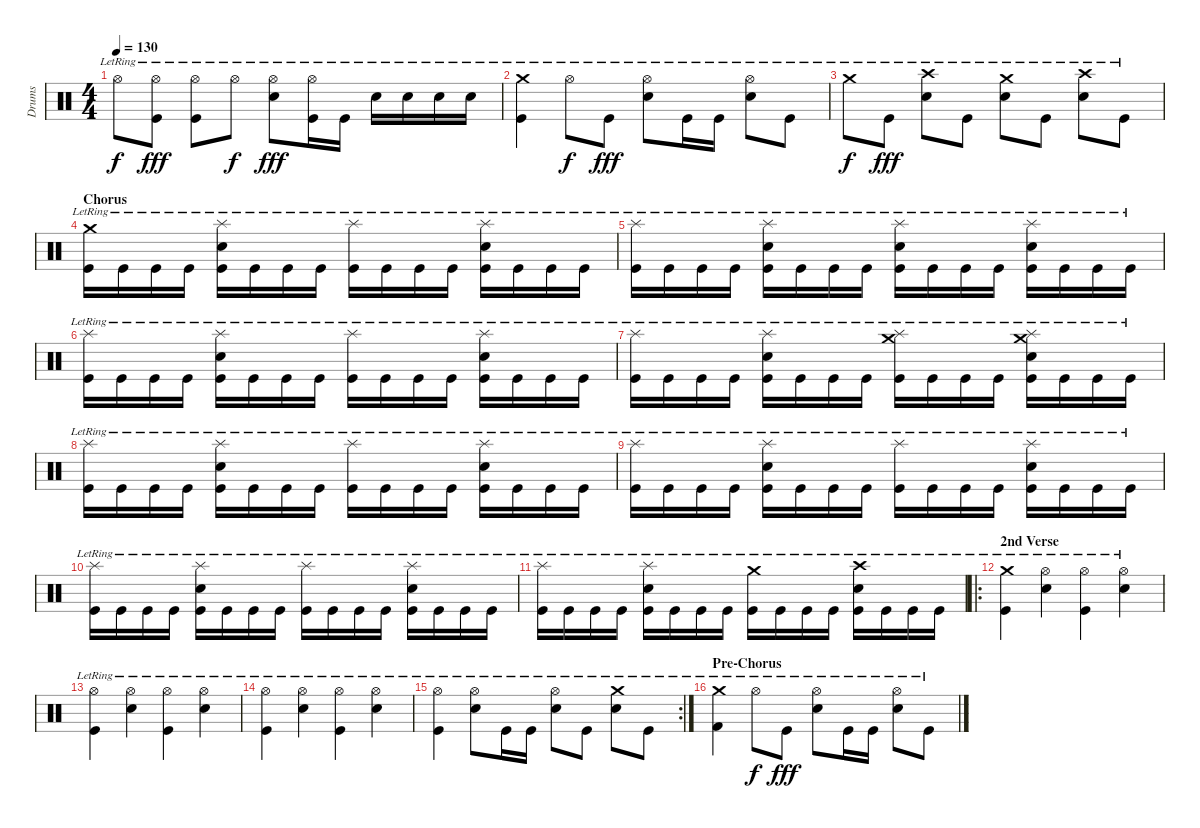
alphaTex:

\track ("Drums" "Drums") {instrument percussion}
\staff {score}
\articulation defaults
\ts (4 4)
\tempo 130
\clef neutral
\ks c "Hi-Hat (open)"{lr}.8{dy f}
("Kick (hit)"{lr} "Hi-Hat (open)"{lr}).8{dy fff} ("Kick (hit)"{lr} "Hi-Hat (open)"{lr}).8 "Hi-Hat (open)"{lr}.8{dy f} ("Snare (hit) 2"{lr} "Hi-Hat (open)"{lr}).8{dy fff} ("Kick (hit)"{lr} "Hi-Hat (open)"{lr}).16 "Kick (hit)"{lr}.16 "Snare (hit) 2"{lr}.16 "Snare (hit) 2"{lr}.16 "Snare (hit) 2"{lr}.16 "Snare (hit) 2"{lr}.16 |
("Kick (hit)"{lr} "Crash medium (hit)"{lr}).4 "Hi-Hat (open)"{lr}.8{dy f} "Kick (hit)"{lr}.8{dy fff} ("Snare (hit) 2"{lr} "Hi-Hat (open)"{lr}).8 "Kick (hit)"{lr}.16 "Kick (hit)"{lr}.16 ("Snare (hit) 2"{lr} "Hi-Hat (open)"{lr}).8 "Kick (hit)"{lr}.8 |
"Crash medium (hit)"{lr}.8{dy f} "Kick (hit)"{lr}.8{dy fff} ("Snare (hit) 2"{lr} "Crash high (hit)"{lr}).8 "Kick (hit)"{lr}.8 ("Snare (hit) 2"{lr} "Crash medium (hit)"{lr}).8 "Kick (hit)"{lr}.8 ("Snare (hit) 2"{lr} "Crash high (hit)"{lr}).8 "Kick (hit)"{lr}.8 |
\section ("" "Chorus")
("Kick (hit)"{lr} "Crash medium (hit)"{lr}).16 "Kick (hit)"{lr}.16 "Kick (hit)"{lr}.16 "Kick (hit)"{lr}.16 ("Kick (hit)"{lr} "Snare (hit) 2"{lr} "Splash (hit)"{lr}).16 "Kick (hit)"{lr}.16 "Kick (hit)"{lr}.16 "Kick (hit)"{lr}.16 ("Kick (hit)"{lr} "Splash (hit)"{lr}).16 "Kick (hit)"{lr}.16 "Kick (hit)"{lr}.16 "Kick (hit)"{lr}.16 ("Kick (hit)"{lr} "Snare (hit) 2"{lr} "Splash (hit)"{lr}).16 "Kick (hit)"{lr}.16 "Kick (hit)"{lr}.16 "Kick (hit)"{lr}.16 |
("Kick (hit)"{lr} "Splash (hit)"{lr}).16 "Kick (hit)"{lr}.16 "Kick (hit)"{lr}.16 "Kick (hit)"{lr}.16 ("Kick (hit)"{lr} "Snare (hit) 2"{lr} "Splash (hit)"{lr}).16 "Kick (hit)"{lr}.16 "Kick (hit)"{lr}.16 "Kick (hit)"{lr}.16 ("Kick (hit)"{lr} "Snare (hit) 2"{lr} "Splash (hit)"{lr}).16 "Kick (hit)"{lr}.16 "Kick (hit)"{lr}.16 "Kick (hit)"{lr}.16 ("Kick (hit)"{lr} "Snare (hit) 2"{lr} "Splash (hit)"{lr}).16 "Kick (hit)"{lr}.16 "Kick (hit)"{lr}.16 "Kick (hit)"{lr}.16 |
("Kick (hit)"{lr} "Splash (hit)"{lr}).16 "Kick (hit)"{lr}.16 "Kick (hit)"{lr}.16 "Kick (hit)"{lr}.16 ("Kick (hit)"{lr} "Snare (hit) 2"{lr} "Splash (hit)"{lr}).16 "Kick (hit)"{lr}.16 "Kick (hit)"{lr}.16 "Kick (hit)"{lr}.16 ("Kick (hit)"{lr} "Splash (hit)"{lr}).16 "Kick (hit)"{lr}.16 "Kick (hit)"{lr}.16 "Kick (hit)"{lr}.16 ("Kick (hit)"{lr} "Snare (hit) 2"{lr} "Splash (hit)"{lr}).16 "Kick (hit)"{lr}.16 "Kick (hit)"{lr}.16 "Kick (hit)"{lr}.16 |
("Kick (hit)"{lr} "Splash (hit)"{lr}).16 "Kick (hit)"{lr}.16 "Kick (hit)"{lr}.16 "Kick (hit)"{lr}.16 ("Kick (hit)"{lr} "Snare (hit) 2"{lr} "Splash (hit)"{lr}).16 "Kick (hit)"{lr}.16 "Kick (hit)"{lr}.16 "Kick (hit)"{lr}.16 ("Kick (hit)"{lr} "Splash (hit)"{lr} "Crash medium (hit)"{lr}).16 "Kick (hit)"{lr}.16 "Kick (hit)"{lr}.16 "Kick (hit)"{lr}.16 ("Kick (hit)"{lr} "Snare (hit) 2"{lr} "Splash (hit)"{lr} "Crash medium (hit)"{lr}).16 "Kick (hit)"{lr}.16 "Kick (hit)"{lr}.16 "Kick (hit)"{lr}.16 |
("Kick (hit)"{lr} "Splash (hit)"{lr}).16 "Kick (hit)"{lr}.16 "Kick (hit)"{lr}.16 "Kick (hit)"{lr}.16 ("Kick (hit)"{lr} "Snare (hit) 2"{lr} "Splash (hit)"{lr}).16 "Kick (hit)"{lr}.16 "Kick (hit)"{lr}.16 "Kick (hit)"{lr}.16 ("Kick (hit)"{lr} "Splash (hit)"{lr}).16 "Kick (hit)"{lr}.16 "Kick (hit)"{lr}.16 "Kick (hit)"{lr}.16 ("Kick (hit)"{lr} "Snare (hit) 2"{lr} "Splash (hit)"{lr}).16 "Kick (hit)"{lr}.16 "Kick (hit)"{lr}.16 "Kick (hit)"{lr}.16 |
("Kick (hit)"{lr} "Splash (hit)"{lr}).16 "Kick (hit)"{lr}.16 "Kick (hit)"{lr}.16 "Kick (hit)"{lr}.16 ("Kick (hit)"{lr} "Snare (hit) 2"{lr} "Splash (hit)"{lr}).16 "Kick (hit)"{lr}.16 "Kick (hit)"{lr}.16 "Kick (hit)"{lr}.16 ("Kick (hit)"{lr} "Splash (hit)"{lr}).16 "Kick (hit)"{lr}.16 "Kick (hit)"{lr}.16 "Kick (hit)"{lr}.16 ("Kick (hit)"{lr} "Snare (hit) 2"{lr} "Splash (hit)"{lr}).16 "Kick (hit)"{lr}.16 "Kick (hit)"{lr}.16 "Kick (hit)"{lr}.16 |
("Kick (hit)"{lr} "Splash (hit)"{lr}).16 "Kick (hit)"{lr}.16 "Kick (hit)"{lr}.16 "Kick (hit)"{lr}.16 ("Kick (hit)"{lr} "Snare (hit) 2"{lr} "Splash (hit)"{lr}).16 "Kick (hit)"{lr}.16 "Kick (hit)"{lr}.16 "Kick (hit)"{lr}.16 ("Kick (hit)"{lr} "Splash (hit)"{lr}).16 "Kick (hit)"{lr}.16 "Kick (hit)"{lr}.16 "Kick (hit)"{lr}.16 ("Kick (hit)"{lr} "Snare (hit) 2"{lr} "Splash (hit)"{lr}).16 "Kick (hit)"{lr}.16 "Kick (hit)"{lr}.16 "Kick (hit)"{lr}.16 |
("Kick (hit)"{lr} "Splash (hit)"{lr}).16 "Kick (hit)"{lr}.16 "Kick (hit)"{lr}.16 "Kick (hit)"{lr}.16 ("Kick (hit)"{lr} "Snare (hit) 2"{lr} "Splash (hit)"{lr}).16 "Kick (hit)"{lr}.16 "Kick (hit)"{lr}.16 "Kick (hit)"{lr}.16 ("Kick (hit)"{lr} "Crash medium (hit)"{lr}).16 "Kick (hit)"{lr}.16 "Kick (hit)"{lr}.16 "Kick (hit)"{lr}.16 ("Kick (hit)"{lr} "Snare (hit) 2"{lr} "Crash high (hit)"{lr}).16 "Kick (hit)"{lr}.16 "Kick (hit)"{lr}.16 "Kick (hit)"{lr}.16 |
\ro
\section ("" "2nd Verse")
("Kick (hit)"{lr} "Crash medium (hit)"{lr}).4 ("Snare (hit) 2"{lr} "Hi-Hat (open)"{lr}).4 ("Kick (hit)"{lr} "Hi-Hat (open)"{lr}).4 ("Snare (hit) 2"{lr} "Hi-Hat (open)"{lr}).4 |
("Kick (hit)"{lr} "Hi-Hat (open)"{lr}).4 ("Snare (hit) 2"{lr} "Hi-Hat (open)"{lr}).4 ("Kick (hit)"{lr} "Hi-Hat (open)"{lr}).4 ("Snare (hit) 2"{lr} "Hi-Hat (open)"{lr}).4 |
("Kick (hit)"{lr} "Hi-Hat (open)"{lr}).4 ("Snare (hit) 2"{lr} "Hi-Hat (open)"{lr}).4 ("Kick (hit)"{lr} "Hi-Hat (open)"{lr}).4 ("Snare (hit) 2"{lr} "Hi-Hat (open)"{lr}).4 |
\rc 2
("Kick (hit)"{lr} "Hi-Hat (open)"{lr}).4 ("Snare (hit) 2"{lr} "Hi-Hat (open)"{lr}).8 "Kick (hit)"{lr}.16 "Kick (hit)"{lr}.16 ("Snare (hit) 2"{lr} "Hi-Hat (open)"{lr}).8 "Kick (hit)"{lr}.8 ("Snare (hit) 2"{lr} "Crash medium (hit)"{lr}).8 "Kick (hit)"{lr}.8 |
\section ("" "Pre-Chorus")
("Kick (hit) 2"{lr} "Crash medium (hit)"{lr}).4 "Hi-Hat (open)"{lr}.8{dy f} "Kick (hit)"{lr}.8{dy fff} ("Snare (hit) 2"{lr} "Hi-Hat (open)"{lr}).8 "Kick (hit)"{lr}.16 "Kick (hit)"{lr}.16 ("Snare (hit) 2"{lr} "Hi-Hat (open)"{lr}).8 "Kick (hit)"{lr}.8
